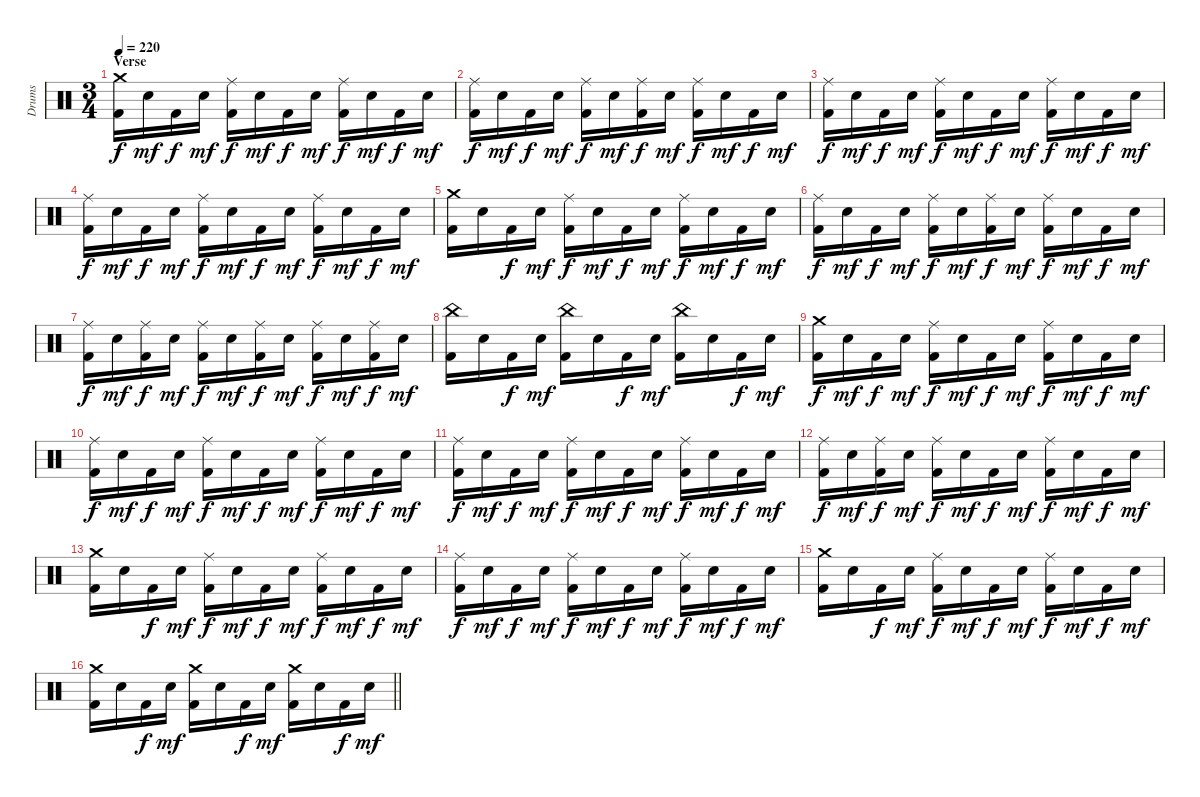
\track ("Drums" "Drums") {instrument percussion}
\staff {score}
\articulation defaults
\ts (3 4)
\section ("" "Verse")
\tempo 220
\clef neutral
\ks c
("Crash medium (hit)" "Kick (hit) 2").16{dy f} "Electric Snare (hit)".16{dy mf} "Kick (hit) 2".16{dy f} "Electric Snare (hit)".16{dy mf} ("Ride (middle)" "Kick (hit) 2").16{dy f} "Electric Snare (hit)".16{dy mf} "Kick (hit) 2".16{dy f} "Electric Snare (hit)".16{dy mf} ("Ride (middle)" "Kick (hit) 2").16{dy f} "Electric Snare (hit)".16{dy mf} "Kick (hit) 2".16{dy f} "Electric Snare (hit)".16{dy mf} |
("Ride (middle)" "Kick (hit) 2").16{dy f} "Electric Snare (hit)".16{dy mf} "Kick (hit) 2".16{dy f} "Electric Snare (hit)".16{dy mf} ("Ride (middle)" "Kick (hit) 2").16{dy f} "Electric Snare (hit)".16{dy mf} ("Ride (middle)" "Kick (hit) 2").16{dy f} "Electric Snare (hit)".16{dy mf} ("Ride (middle)" "Kick (hit) 2").16{dy f} "Electric Snare (hit)".16{dy mf} "Kick (hit) 2".16{dy f} "Electric Snare (hit)".16{dy mf} |
("Ride (middle)" "Kick (hit) 2").16{dy f} "Electric Snare (hit)".16{dy mf} "Kick (hit) 2".16{dy f} "Electric Snare (hit)".16{dy mf} ("Ride (middle)" "Kick (hit) 2").16{dy f} "Electric Snare (hit)".16{dy mf} "Kick (hit) 2".16{dy f} "Electric Snare (hit)".16{dy mf} ("Ride (middle)" "Kick (hit) 2").16{dy f} "Electric Snare (hit)".16{dy mf} "Kick (hit) 2".16{dy f} "Electric Snare (hit)".16{dy mf} |
("Ride (middle)" "Kick (hit) 2").16{dy f} "Electric Snare (hit)".16{dy mf} "Kick (hit) 2".16{dy f} "Electric Snare (hit)".16{dy mf} ("Ride (middle)" "Kick (hit) 2").16{dy f} "Electric Snare (hit)".16{dy mf} "Kick (hit) 2".16{dy f} "Electric Snare (hit)".16{dy mf} ("Ride (middle)" "Kick (hit) 2").16{dy f} "Electric Snare (hit)".16{dy mf} "Kick (hit) 2".16{dy f} "Electric Snare (hit)".16{dy mf} |
("Crash medium (hit)" "Kick (hit) 2").16 "Electric Snare (hit)".16 "Kick (hit) 2".16{dy f} "Electric Snare (hit)".16{dy mf} ("Ride (middle)" "Kick (hit) 2").16{dy f} "Electric Snare (hit)".16{dy mf} "Kick (hit) 2".16{dy f} "Electric Snare (hit)".16{dy mf} ("Ride (middle)" "Kick (hit) 2").16{dy f} "Electric Snare (hit)".16{dy mf} "Kick (hit) 2".16{dy f} "Electric Snare (hit)".16{dy mf} |
("Ride (middle)" "Kick (hit) 2").16{dy f} "Electric Snare (hit)".16{dy mf} "Kick (hit) 2".16{dy f} "Electric Snare (hit)".16{dy mf} ("Ride (middle)" "Kick (hit) 2").16{dy f} "Electric Snare (hit)".16{dy mf} ("Ride (middle)" "Kick (hit) 2").16{dy f} "Electric Snare (hit)".16{dy mf} ("Ride (middle)" "Kick (hit) 2").16{dy f} "Electric Snare (hit)".16{dy mf} "Kick (hit) 2".16{dy f} "Electric Snare (hit)".16{dy mf} |
("Ride (middle)" "Kick (hit) 2").16{dy f} "Electric Snare (hit)".16{dy mf} ("Ride (middle)" "Kick (hit) 2").16{dy f} "Electric Snare (hit)".16{dy mf} ("Ride (middle)" "Kick (hit) 2").16{dy f} "Electric Snare (hit)".16{dy mf} ("Ride (middle)" "Kick (hit) 2").16{dy f} "Electric Snare (hit)".16{dy mf} ("Ride (middle)" "Kick (hit) 2").16{dy f} "Electric Snare (hit)".16{dy mf} ("Ride (middle)" "Kick (hit) 2").16{dy f} "Electric Snare (hit)".16{dy mf} |
("China (hit)" "Kick (hit) 2").16 "Electric Snare (hit)".16 "Kick (hit) 2".16{dy f} "Electric Snare (hit)".16{dy mf} ("China (hit)" "Kick (hit) 2").16 "Electric Snare (hit)".16 "Kick (hit) 2".16{dy f} "Electric Snare (hit)".16{dy mf} ("China (hit)" "Kick (hit) 2").16 "Electric Snare (hit)".16 "Kick (hit) 2".16{dy f} "Electric Snare (hit)".16{dy mf} |
("Crash medium (hit)" "Kick (hit) 2").16{dy f} "Electric Snare (hit)".16{dy mf} "Kick (hit) 2".16{dy f} "Electric Snare (hit)".16{dy mf} ("Ride (middle)" "Kick (hit) 2").16{dy f} "Electric Snare (hit)".16{dy mf} "Kick (hit) 2".16{dy f} "Electric Snare (hit)".16{dy mf} ("Ride (middle)" "Kick (hit) 2").16{dy f} "Electric Snare (hit)".16{dy mf} "Kick (hit) 2".16{dy f} "Electric Snare (hit)".16{dy mf} |
("Ride (middle)" "Kick (hit) 2").16{dy f} "Electric Snare (hit)".16{dy mf} "Kick (hit) 2".16{dy f} "Electric Snare (hit)".16{dy mf} ("Ride (middle)" "Kick (hit) 2").16{dy f} "Electric Snare (hit)".16{dy mf} "Kick (hit) 2".16{dy f} "Electric Snare (hit)".16{dy mf} ("Ride (middle)" "Kick (hit) 2").16{dy f} "Electric Snare (hit)".16{dy mf} "Kick (hit) 2".16{dy f} "Electric Snare (hit)".16{dy mf} |
("Ride (middle)" "Kick (hit) 2").16{dy f} "Electric Snare (hit)".16{dy mf} "Kick (hit) 2".16{dy f} "Electric Snare (hit)".16{dy mf} ("Ride (middle)" "Kick (hit) 2").16{dy f} "Electric Snare (hit)".16{dy mf} "Kick (hit) 2".16{dy f} "Electric Snare (hit)".16{dy mf} ("Ride (middle)" "Kick (hit) 2").16{dy f} "Electric Snare (hit)".16{dy mf} "Kick (hit) 2".16{dy f} "Electric Snare (hit)".16{dy mf} |
("Ride (middle)" "Kick (hit) 2").16{dy f} "Electric Snare (hit)".16{dy mf} ("Ride (middle)" "Kick (hit) 2").16{dy f} "Electric Snare (hit)".16{dy mf} ("Ride (middle)" "Kick (hit) 2").16{dy f} "Electric Snare (hit)".16{dy mf} "Kick (hit) 2".16{dy f} "Electric Snare (hit)".16{dy mf} ("Ride (middle)" "Kick (hit) 2").16{dy f} "Electric Snare (hit)".16{dy mf} "Kick (hit) 2".16{dy f} "Electric Snare (hit)".16{dy mf} |
("Crash medium (hit)" "Kick (hit) 2").16 "Electric Snare (hit)".16 "Kick (hit) 2".16{dy f} "Electric Snare (hit)".16{dy mf} ("Ride (middle)" "Kick (hit) 2").16{dy f} "Electric Snare (hit)".16{dy mf} "Kick (hit) 2".16{dy f} "Electric Snare (hit)".16{dy mf} ("Ride (middle)" "Kick (hit) 2").16{dy f} "Electric Snare (hit)".16{dy mf} "Kick (hit) 2".16{dy f} "Electric Snare (hit)".16{dy mf} |
("Ride (middle)" "Kick (hit) 2").16{dy f} "Electric Snare (hit)".16{dy mf} "Kick (hit) 2".16{dy f} "Electric Snare (hit)".16{dy mf} ("Ride (middle)" "Kick (hit) 2").16{dy f} "Electric Snare (hit)".16{dy mf} "Kick (hit) 2".16{dy f} "Electric Snare (hit)".16{dy mf} ("Ride (middle)" "Kick (hit) 2").16{dy f} "Electric Snare (hit)".16{dy mf} "Kick (hit) 2".16{dy f} "Electric Snare (hit)".16{dy mf} |
("Crash medium (hit)" "Kick (hit) 2").16 "Electric Snare (hit)".16 "Kick (hit) 2".16{dy f} "Electric Snare (hit)".16{dy mf} ("Ride (middle)" "Kick (hit) 2").16{dy f} "Electric Snare (hit)".16{dy mf} "Kick (hit) 2".16{dy f} "Electric Snare (hit)".16{dy mf} ("Ride (middle)" "Kick (hit) 2").16{dy f} "Electric Snare (hit)".16{dy mf} "Kick (hit) 2".16{dy f} "Electric Snare (hit)".16{dy mf} |
\barLineRight lightlight
("Crash medium (hit)" "Kick (hit) 2").16 "Electric Snare (hit)".16 "Kick (hit) 2".16{dy f} "Electric Snare (hit)".16{dy mf} ("Crash medium (hit)" "Kick (hit) 2").16 "Electric Snare (hit)".16 "Kick (hit) 2".16{dy f} "Electric Snare (hit)".16{dy mf} ("Crash medium (hit)" "Kick (hit) 2").16 "Electric Snare (hit)".16 "Kick (hit) 2".16{dy f} "Electric Snare (hit)".16{dy mf}
